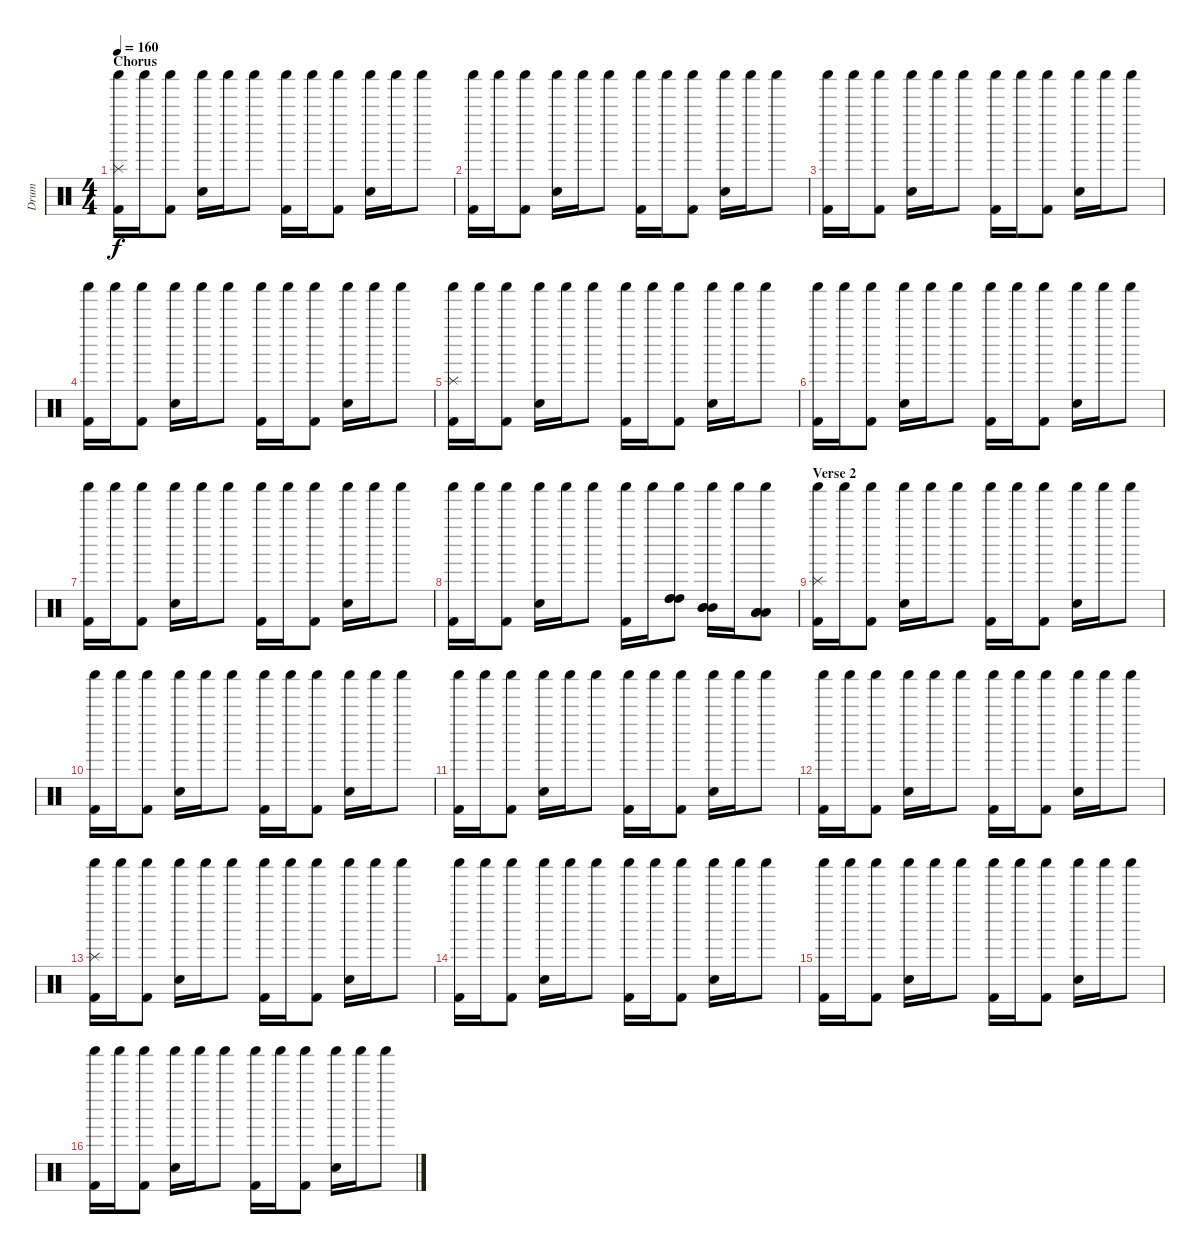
\track ("Drum" "Drum") {instrument percussion}
\staff {score}
\articulation defaults
\ts (4 4)
\section ("" "Chorus")
\tempo 160
\clef neutral
\ks c
("Splash (hit)" "Shaker (hit)" "Kick (hit) 2").16{dy f} "Shaker (hit)".16 ("Shaker (hit)" "Kick (hit) 2").8 ("Shaker (hit)" "Snare (hit) 2").16 "Shaker (hit)".16 "Shaker (hit)".8 ("Shaker (hit)" "Kick (hit) 2").16 "Shaker (hit)".16 ("Shaker (hit)" "Kick (hit) 2").8 ("Shaker (hit)" "Snare (hit) 2").16 "Shaker (hit)".16 "Shaker (hit)".8 |
("Shaker (hit)" "Kick (hit) 2").16 "Shaker (hit)".16 ("Shaker (hit)" "Kick (hit) 2").8 ("Shaker (hit)" "Snare (hit) 2").16 "Shaker (hit)".16 "Shaker (hit)".8 ("Shaker (hit)" "Kick (hit) 2").16 "Shaker (hit)".16 ("Shaker (hit)" "Kick (hit) 2").8 ("Shaker (hit)" "Snare (hit) 2").16 "Shaker (hit)".16 "Shaker (hit)".8 |
("Shaker (hit)" "Kick (hit) 2").16 "Shaker (hit)".16 ("Shaker (hit)" "Kick (hit) 2").8 ("Shaker (hit)" "Snare (hit) 2").16 "Shaker (hit)".16 "Shaker (hit)".8 ("Shaker (hit)" "Kick (hit) 2").16 "Shaker (hit)".16 ("Shaker (hit)" "Kick (hit) 2").8 ("Shaker (hit)" "Snare (hit) 2").16 "Shaker (hit)".16 "Shaker (hit)".8 |
("Shaker (hit)" "Kick (hit) 2").16 "Shaker (hit)".16 ("Shaker (hit)" "Kick (hit) 2").8 ("Shaker (hit)" "Snare (hit) 2").16 "Shaker (hit)".16 "Shaker (hit)".8 ("Shaker (hit)" "Kick (hit) 2").16 "Shaker (hit)".16 ("Shaker (hit)" "Kick (hit) 2").8 ("Shaker (hit)" "Snare (hit) 2").16 "Shaker (hit)".16 "Shaker (hit)".8 |
("Splash (hit)" "Shaker (hit)" "Kick (hit) 2").16 "Shaker (hit)".16 ("Shaker (hit)" "Kick (hit) 2").8 ("Shaker (hit)" "Snare (hit) 2").16 "Shaker (hit)".16 "Shaker (hit)".8 ("Shaker (hit)" "Kick (hit) 2").16 "Shaker (hit)".16 ("Shaker (hit)" "Kick (hit) 2").8 ("Shaker (hit)" "Snare (hit) 2").16 "Shaker (hit)".16 "Shaker (hit)".8 |
("Shaker (hit)" "Kick (hit) 2").16 "Shaker (hit)".16 ("Shaker (hit)" "Kick (hit) 2").8 ("Shaker (hit)" "Snare (hit) 2").16 "Shaker (hit)".16 "Shaker (hit)".8 ("Shaker (hit)" "Kick (hit) 2").16 "Shaker (hit)".16 ("Shaker (hit)" "Kick (hit) 2").8 ("Shaker (hit)" "Snare (hit) 2").16 "Shaker (hit)".16 "Shaker (hit)".8 |
("Shaker (hit)" "Kick (hit) 2").16 "Shaker (hit)".16 ("Shaker (hit)" "Kick (hit) 2").8 ("Shaker (hit)" "Snare (hit) 2").16 "Shaker (hit)".16 "Shaker (hit)".8 ("Shaker (hit)" "Kick (hit) 2").16 "Shaker (hit)".16 ("Shaker (hit)" "Kick (hit) 2").8 ("Shaker (hit)" "Snare (hit) 2").16 "Shaker (hit)".16 "Shaker (hit)".8 |
("Shaker (hit)" "Kick (hit) 2").16 "Shaker (hit)".16 ("Shaker (hit)" "Kick (hit) 2").8 ("Shaker (hit)" "Snare (hit) 2").16 "Shaker (hit)".16 "Shaker (hit)".8 ("Shaker (hit)" "Kick (hit) 2").16 "Shaker (hit)".16 ("High Tom (hit)" "High Tom (hit)" "High Tom (hit)" "Shaker (hit)").8 ("Mid Tom (hit)" "Mid Tom (hit)" "Mid Tom (hit)" "Shaker (hit)").16 "Shaker (hit)".16 ("Low Tom (hit)" "Low Tom (hit)" "Low Tom (hit)" "Shaker (hit)").8 |
\section ("" "Verse 2")
("Splash (hit)" "Shaker (hit)" "Kick (hit) 2").16 "Shaker (hit)".16 ("Shaker (hit)" "Kick (hit) 2").8 ("Shaker (hit)" "Snare (hit) 2").16 "Shaker (hit)".16 "Shaker (hit)".8 ("Shaker (hit)" "Kick (hit) 2").16 "Shaker (hit)".16 ("Shaker (hit)" "Kick (hit) 2").8 ("Shaker (hit)" "Snare (hit) 2").16 "Shaker (hit)".16 "Shaker (hit)".8 |
("Shaker (hit)" "Kick (hit) 2").16 "Shaker (hit)".16 ("Shaker (hit)" "Kick (hit) 2").8 ("Shaker (hit)" "Snare (hit) 2").16 "Shaker (hit)".16 "Shaker (hit)".8 ("Shaker (hit)" "Kick (hit) 2").16 "Shaker (hit)".16 ("Shaker (hit)" "Kick (hit) 2").8 ("Shaker (hit)" "Snare (hit) 2").16 "Shaker (hit)".16 "Shaker (hit)".8 |
("Shaker (hit)" "Kick (hit) 2").16 "Shaker (hit)".16 ("Shaker (hit)" "Kick (hit) 2").8 ("Shaker (hit)" "Snare (hit) 2").16 "Shaker (hit)".16 "Shaker (hit)".8 ("Shaker (hit)" "Kick (hit) 2").16 "Shaker (hit)".16 ("Shaker (hit)" "Kick (hit) 2").8 ("Shaker (hit)" "Snare (hit) 2").16 "Shaker (hit)".16 "Shaker (hit)".8 |
("Shaker (hit)" "Kick (hit) 2").16 "Shaker (hit)".16 ("Shaker (hit)" "Kick (hit) 2").8 ("Shaker (hit)" "Snare (hit) 2").16 "Shaker (hit)".16 "Shaker (hit)".8 ("Shaker (hit)" "Kick (hit) 2").16 "Shaker (hit)".16 ("Shaker (hit)" "Kick (hit) 2").8 ("Shaker (hit)" "Snare (hit) 2").16 "Shaker (hit)".16 "Shaker (hit)".8 |
("Splash (hit)" "Shaker (hit)" "Kick (hit) 2").16 "Shaker (hit)".16 ("Shaker (hit)" "Kick (hit) 2").8 ("Shaker (hit)" "Snare (hit) 2").16 "Shaker (hit)".16 "Shaker (hit)".8 ("Shaker (hit)" "Kick (hit) 2").16 "Shaker (hit)".16 ("Shaker (hit)" "Kick (hit) 2").8 ("Shaker (hit)" "Snare (hit) 2").16 "Shaker (hit)".16 "Shaker (hit)".8 |
("Shaker (hit)" "Kick (hit) 2").16 "Shaker (hit)".16 ("Shaker (hit)" "Kick (hit) 2").8 ("Shaker (hit)" "Snare (hit) 2").16 "Shaker (hit)".16 "Shaker (hit)".8 ("Shaker (hit)" "Kick (hit) 2").16 "Shaker (hit)".16 ("Shaker (hit)" "Kick (hit) 2").8 ("Shaker (hit)" "Snare (hit) 2").16 "Shaker (hit)".16 "Shaker (hit)".8 |
("Shaker (hit)" "Kick (hit) 2").16 "Shaker (hit)".16 ("Shaker (hit)" "Kick (hit) 2").8 ("Shaker (hit)" "Snare (hit) 2").16 "Shaker (hit)".16 "Shaker (hit)".8 ("Shaker (hit)" "Kick (hit) 2").16 "Shaker (hit)".16 ("Shaker (hit)" "Kick (hit) 2").8 ("Shaker (hit)" "Snare (hit) 2").16 "Shaker (hit)".16 "Shaker (hit)".8 |
("Shaker (hit)" "Kick (hit) 2").16 "Shaker (hit)".16 ("Shaker (hit)" "Kick (hit) 2").8 ("Shaker (hit)" "Snare (hit) 2").16 "Shaker (hit)".16 "Shaker (hit)".8 ("Shaker (hit)" "Kick (hit) 2").16 "Shaker (hit)".16 ("Shaker (hit)" "Kick (hit) 2").8 ("Shaker (hit)" "Snare (hit) 2").16 "Shaker (hit)".16 "Shaker (hit)".8
